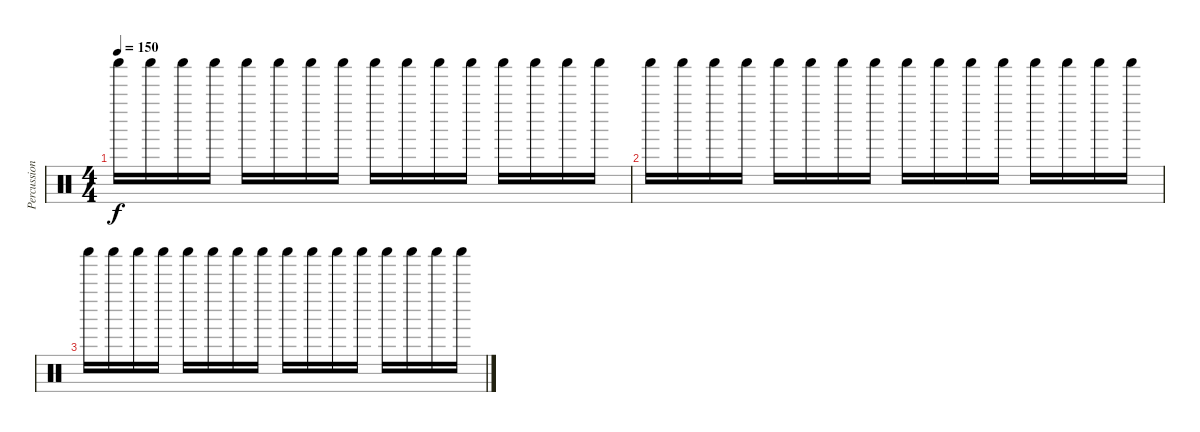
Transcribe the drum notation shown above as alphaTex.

\track ("Percussion" "Percussion") {instrument percussion}
\staff {score}
\articulation defaults
\ts (4 4)
\tempo 150
\clef neutral
\ks c "Shaker (hit)".16{dy f} "Shaker (hit)".16 "Shaker (hit)".16 "Shaker (hit)".16 "Shaker (hit)".16 "Shaker (hit)".16 "Shaker (hit)".16 "Shaker (hit)".16 "Shaker (hit)".16 "Shaker (hit)".16 "Shaker (hit)".16 "Shaker (hit)".16 "Shaker (hit)".16 "Shaker (hit)".16 "Shaker (hit)".16 "Shaker (hit)".16
|
"Shaker (hit)".16 "Shaker (hit)".16 "Shaker (hit)".16 "Shaker (hit)".16 "Shaker (hit)".16 "Shaker (hit)".16 "Shaker (hit)".16 "Shaker (hit)".16 "Shaker (hit)".16 "Shaker (hit)".16 "Shaker (hit)".16 "Shaker (hit)".16 "Shaker (hit)".16 "Shaker (hit)".16 "Shaker (hit)".16 "Shaker (hit)".16 |
"Shaker (hit)".16 "Shaker (hit)".16 "Shaker (hit)".16 "Shaker (hit)".16 "Shaker (hit)".16 "Shaker (hit)".16 "Shaker (hit)".16 "Shaker (hit)".16 "Shaker (hit)".16 "Shaker (hit)".16 "Shaker (hit)".16 "Shaker (hit)".16 "Shaker (hit)".16 "Shaker (hit)".16 "Shaker (hit)".16 "Shaker (hit)".16
